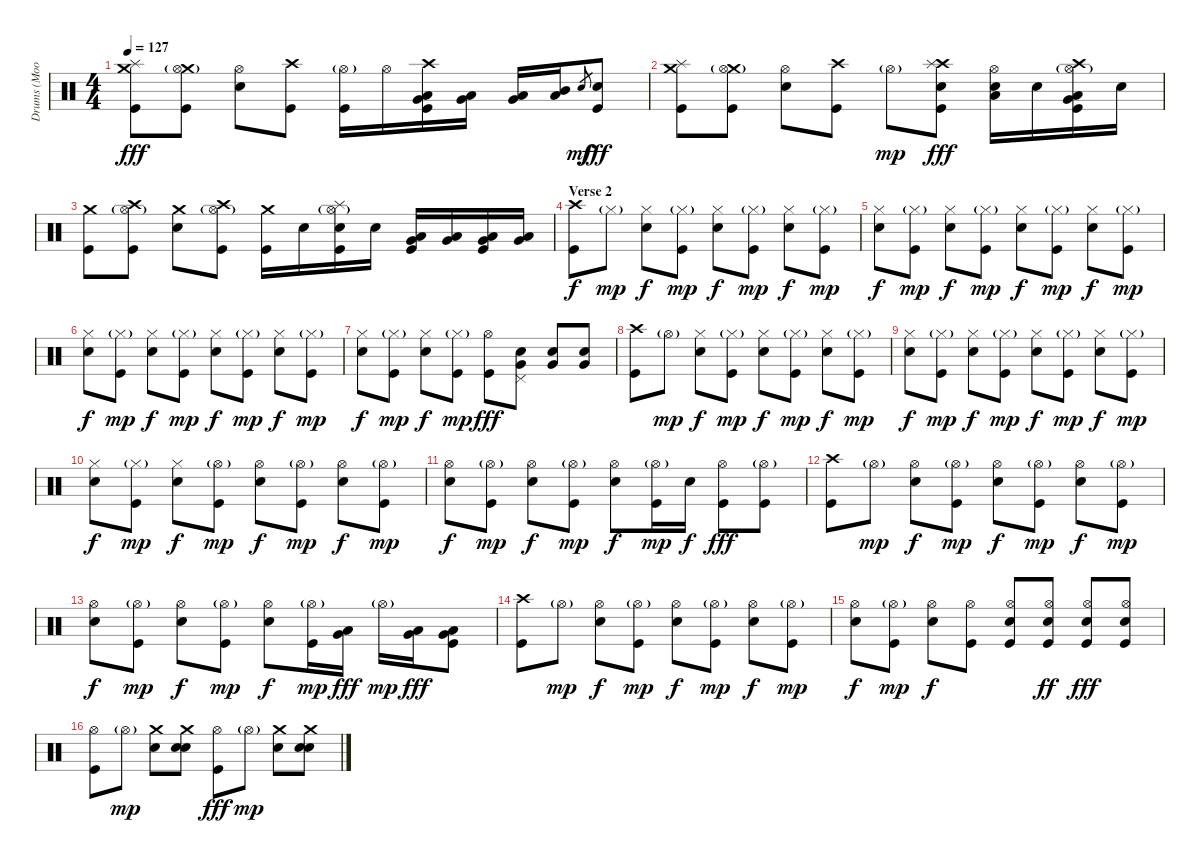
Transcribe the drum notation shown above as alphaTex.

\track ("Drums (Moon)" "Drums (Moo") {instrument percussion}
\staff {score}
\articulation defaults
\ts (4 4)
\tempo 127
\clef neutral
\ks c
("Crash medium (hit)" "Splash (hit)" "Kick (hit)").8{dy fff} ("Crash medium (hit)" "Hi-Hat (open)"{g} "Kick (hit)").8 ("Hi-Hat (open)" "Electric Snare (hit)").8 ("Crash high (hit)" "Kick (hit)").8 ("Hi-Hat (open)"{g} "Kick (hit)").16 "Hi-Hat (open)".16 ("Crash high (hit)" "Low Tom (hit)" "Very Low Tom (hit)" "Kick (hit)").16 ("Very Low Tom (hit)" "Low Floor Tom (hit)").16 ("Very Low Tom (hit)" "Low Floor Tom (hit)").16 ("Mid Tom (hit)" "Low Tom (hit)").16 "Electric Snare (hit)".8{gr dy mf} ("Electric Snare (hit)" "Kick (hit)").8{dy fff} |
("Crash medium (hit)" "Splash (hit)" "Kick (hit)").8 ("Crash medium (hit)" "Hi-Hat (open)"{g} "Kick (hit)").8 ("Hi-Hat (open)" "Electric Snare (hit)").8 ("Crash high (hit)" "Kick (hit)").8 "Hi-Hat (open)"{g}.8{dy mp} ("Crash high (hit)" "Splash (hit)" "Electric Snare (hit)" "Kick (hit)").8{dy fff} ("Hi-Hat (open)" "Electric Snare (hit)" "Low Tom (hit)").16 "Electric Snare (hit)".16 ("Crash high (hit)" "Hi-Hat (open)"{g} "Very Low Tom (hit)" "Low Floor Tom (hit)" "Kick (hit)").16 "Electric Snare (hit)".16 |
("Crash medium (hit)" "Kick (hit)").8 ("Crash high (hit)" "Hi-Hat (open)"{g} "Kick (hit)").8 ("Crash medium (hit)" "Electric Snare (hit)").8 ("Crash high (hit)" "Hi-Hat (open)"{g} "Kick (hit)").8 ("Crash medium (hit)" "Kick (hit)").16 "Electric Snare (hit)".16 ("Hi-Hat (open)"{g} "Splash (hit)" "Electric Snare (hit)" "Kick (hit)").16 "Electric Snare (hit)".16 ("Low Tom (hit)" "Very Low Tom (hit)" "Kick (hit)").16 ("Low Tom (hit)" "Very Low Tom (hit)").16 ("Low Tom (hit)" "Very Low Tom (hit)" "Kick (hit)").16 ("Low Tom (hit)" "Very Low Tom (hit)").16 |
\section ("" "Verse 2")
("Crash high (hit)" "Kick (hit)").8{dy f volume 13} "Hi-Hat (closed)"{g}.8{dy mp} ("Hi-Hat (closed)" "Electric Snare (hit)").8{dy f} ("Hi-Hat (closed)"{g} "Kick (hit)").8{dy mp} ("Hi-Hat (closed)" "Electric Snare (hit)").8{dy f} ("Hi-Hat (closed)"{g} "Kick (hit)").8{dy mp} ("Hi-Hat (closed)" "Electric Snare (hit)").8{dy f} ("Hi-Hat (closed)"{g} "Kick (hit)").8{dy mp} |
("Hi-Hat (closed)" "Electric Snare (hit)").8{dy f} ("Hi-Hat (closed)"{g} "Kick (hit)").8{dy mp} ("Hi-Hat (closed)" "Electric Snare (hit)").8{dy f} ("Hi-Hat (closed)"{g} "Kick (hit)").8{dy mp} ("Hi-Hat (closed)" "Electric Snare (hit)").8{dy f} ("Hi-Hat (closed)"{g} "Kick (hit)").8{dy mp} ("Hi-Hat (closed)" "Electric Snare (hit)").8{dy f} ("Hi-Hat (closed)"{g} "Kick (hit)").8{dy mp} |
("Hi-Hat (closed)" "Electric Snare (hit)").8{dy f} ("Hi-Hat (closed)"{g} "Kick (hit)").8{dy mp} ("Hi-Hat (closed)" "Electric Snare (hit)").8{dy f} ("Hi-Hat (closed)"{g} "Kick (hit)").8{dy mp} ("Hi-Hat (closed)" "Electric Snare (hit)").8{dy f} ("Hi-Hat (closed)"{g} "Kick (hit)").8{dy mp} ("Hi-Hat (closed)" "Electric Snare (hit)").8{dy f} ("Hi-Hat (closed)"{g} "Kick (hit)").8{dy mp} |
("Hi-Hat (closed)" "Electric Snare (hit)").8{dy f} ("Hi-Hat (closed)"{g} "Kick (hit)").8{dy mp} ("Hi-Hat (closed)" "Electric Snare (hit)").8{dy f} ("Hi-Hat (closed)"{g} "Kick (hit)").8{dy mp} ("Hi-Hat (open)" "Kick (hit)").8{dy fff} ("Pedal Hi-Hat (hit)" "Electric Snare (hit)" "Very Low Tom (hit)").8 ("Electric Snare (hit)" "Very Low Tom (hit)").8 ("Electric Snare (hit)" "Very Low Tom (hit)").8 |
("Crash high (hit)" "Kick (hit)").8 "Hi-Hat (open)"{g}.8{dy mp} ("Hi-Hat (closed)" "Electric Snare (hit)").8{dy f} ("Hi-Hat (closed)"{g} "Kick (hit)").8{dy mp} ("Hi-Hat (closed)" "Electric Snare (hit)").8{dy f} ("Hi-Hat (closed)"{g} "Kick (hit)").8{dy mp} ("Hi-Hat (closed)" "Electric Snare (hit)").8{dy f} ("Hi-Hat (closed)"{g} "Kick (hit)").8{dy mp} |
("Hi-Hat (closed)" "Electric Snare (hit)").8{dy f} ("Hi-Hat (closed)"{g} "Kick (hit)").8{dy mp} ("Hi-Hat (closed)" "Electric Snare (hit)").8{dy f} ("Hi-Hat (closed)"{g} "Kick (hit)").8{dy mp} ("Hi-Hat (closed)" "Electric Snare (hit)").8{dy f} ("Hi-Hat (closed)"{g} "Kick (hit)").8{dy mp} ("Hi-Hat (closed)" "Electric Snare (hit)").8{dy f} ("Hi-Hat (closed)"{g} "Kick (hit)").8{dy mp} |
("Hi-Hat (closed)" "Electric Snare (hit)").8{dy f} ("Hi-Hat (closed)"{g} "Kick (hit)").8{dy mp} ("Hi-Hat (closed)" "Electric Snare (hit)").8{dy f} ("Hi-Hat (open)"{g} "Kick (hit)").8{dy mp} ("Hi-Hat (open)" "Electric Snare (hit)").8{dy f} ("Hi-Hat (open)"{g} "Kick (hit)").8{dy mp} ("Hi-Hat (open)" "Electric Snare (hit)").8{dy f} ("Hi-Hat (open)"{g} "Kick (hit)").8{dy mp} |
("Hi-Hat (open)" "Electric Snare (hit)").8{dy f} ("Hi-Hat (open)"{g} "Kick (hit)").8{dy mp} ("Hi-Hat (open)" "Electric Snare (hit)").8{dy f} ("Hi-Hat (open)"{g} "Kick (hit)").8{dy mp} ("Hi-Hat (open)" "Electric Snare (hit)").8{dy f} ("Hi-Hat (open)"{g} "Kick (hit)").16{dy mp} "Electric Snare (hit)".16{dy f} ("Hi-Hat (open)" "Kick (hit)").8{dy fff} ("Hi-Hat (open)"{g} "Kick (hit)").8 |
("Crash high (hit)" "Kick (hit)").8 "Hi-Hat (open)"{g}.8{dy mp} ("Hi-Hat (open)" "Electric Snare (hit)").8{dy f} ("Hi-Hat (open)"{g} "Kick (hit)").8{dy mp} ("Hi-Hat (open)" "Electric Snare (hit)").8{dy f} ("Hi-Hat (open)"{g} "Kick (hit)").8{dy mp} ("Hi-Hat (open)" "Electric Snare (hit)").8{dy f} ("Hi-Hat (open)"{g} "Kick (hit)").8{dy mp} |
("Hi-Hat (open)" "Electric Snare (hit)").8{dy f} ("Hi-Hat (open)"{g} "Kick (hit)").8{dy mp} ("Hi-Hat (open)" "Electric Snare (hit)").8{dy f} ("Hi-Hat (open)"{g} "Kick (hit)").8{dy mp} ("Hi-Hat (open)" "Electric Snare (hit)").8{dy f} ("Hi-Hat (open)"{g} "Kick (hit)").16{dy mp} ("Very Low Tom (hit)" "Low Floor Tom (hit)").16{dy fff} "Hi-Hat (open)"{g}.16{dy mp} ("Very Low Tom (hit)" "Low Floor Tom (hit)").16{dy fff} ("Very Low Tom (hit)" "Low Floor Tom (hit)" "Kick (hit)").8 |
("Crash high (hit)" "Kick (hit)").8 "Hi-Hat (open)"{g}.8{dy mp} ("Hi-Hat (open)" "Electric Snare (hit)").8{dy f} ("Hi-Hat (open)"{g} "Kick (hit)").8{dy mp} ("Hi-Hat (open)" "Electric Snare (hit)").8{dy f} ("Hi-Hat (open)"{g} "Kick (hit)").8{dy mp} ("Hi-Hat (open)" "Electric Snare (hit)").8{dy f} ("Hi-Hat (open)"{g} "Kick (hit)").8{dy mp} |
("Hi-Hat (open)" "Electric Snare (hit)").8{dy f} ("Hi-Hat (open)"{g} "Kick (hit)").8{dy mp} ("Hi-Hat (open)" "Electric Snare (hit)").8{dy f} ("Hi-Hat (open)" "Kick (hit)").8 ("Hi-Hat (open)" "Electric Snare (hit)" "Kick (hit)").8 ("Hi-Hat (open)" "Electric Snare (hit)" "Kick (hit)").8{dy ff} ("Hi-Hat (open)" "Electric Snare (hit)" "Kick (hit)").8{dy fff} ("Hi-Hat (open)" "Electric Snare (hit)" "Kick (hit)").8 |
("Hi-Hat (open)" "Kick (hit)").8 "Hi-Hat (open)"{g}.8{dy mp} ("Crash medium (hit)" "Electric Snare (hit)").8 ("Crash medium (hit)" "Electric Snare (hit)" "Snare (hit) 2").8 ("Hi-Hat (open)" "Kick (hit)").8{dy fff} "Hi-Hat (open)"{g}.8{dy mp} ("Crash medium (hit)" "Electric Snare (hit)").8 ("Crash medium (hit)" "Electric Snare (hit)" "Snare (hit) 2").8
